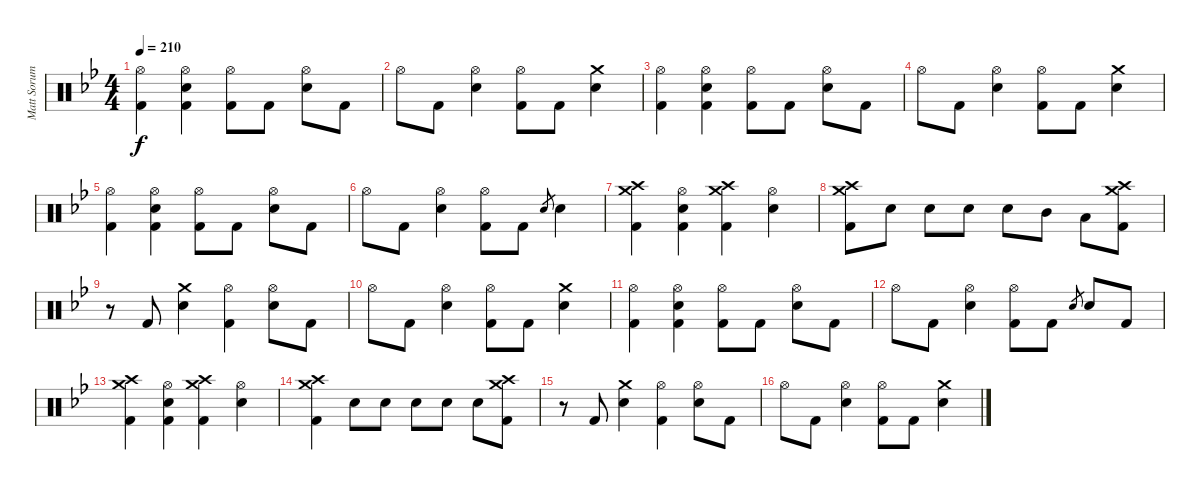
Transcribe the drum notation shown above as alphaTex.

\track ("Matt Sorum - Drums" "Matt Sorum") {instrument percussion}
\staff {score}
\articulation defaults
\ts (4 4)
\tempo 210
\clef neutral
\ks bb
("Hi-Hat (open)" "Kick (hit) 2").4{dy f} ("Hi-Hat (open)" "Snare (hit) 2" "Kick (hit) 2").4 ("Hi-Hat (open)" "Kick (hit) 2").8 "Kick (hit) 2".8 ("Hi-Hat (open)" "Snare (hit) 2").8 "Kick (hit) 2".8 |
"Hi-Hat (open)".8 "Kick (hit) 2".8 ("Hi-Hat (open)" "Snare (hit) 2").4 ("Hi-Hat (open)" "Kick (hit) 2").8 "Kick (hit) 2".8 ("Crash medium (hit)" "Snare (hit) 2").4 |
("Hi-Hat (open)" "Kick (hit) 2").4 ("Hi-Hat (open)" "Snare (hit) 2" "Kick (hit) 2").4 ("Hi-Hat (open)" "Kick (hit) 2").8 "Kick (hit) 2".8 ("Hi-Hat (open)" "Snare (hit) 2").8 "Kick (hit) 2".8 |
"Hi-Hat (open)".8 "Kick (hit) 2".8 ("Hi-Hat (open)" "Snare (hit) 2").4 ("Hi-Hat (open)" "Kick (hit) 2").8 "Kick (hit) 2".8 ("Crash medium (hit)" "Snare (hit) 2").4 |
("Hi-Hat (open)" "Kick (hit) 2").4 ("Hi-Hat (open)" "Snare (hit) 2" "Kick (hit) 2").4 ("Hi-Hat (open)" "Kick (hit) 2").8 "Kick (hit) 2".8 ("Hi-Hat (open)" "Snare (hit) 2").8 "Kick (hit) 2".8 |
"Hi-Hat (open)".8 "Kick (hit) 2".8 ("Hi-Hat (open)" "Snare (hit) 2").4 ("Hi-Hat (open)" "Kick (hit) 2").8 "Kick (hit) 2".8 "Snare (hit) 2".8{gr} "Snare (hit) 2".4 |
("Crash medium (hit)" "Crash high (hit)" "Kick (hit) 2").4 ("Hi-Hat (open)" "Snare (hit) 2" "Kick (hit) 2").4 ("Crash medium (hit)" "Crash high (hit)" "Kick (hit) 2").4 ("Hi-Hat (open)" "Snare (hit) 2").4 |
("Crash medium (hit)" "Crash high (hit)" "Kick (hit) 2").8 "Snare (hit) 2".8 "Snare (hit) 2".8 "Snare (hit) 2".8 "Snare (hit) 2".8 "Mid Tom (hit)".8 "Low Tom (hit)".8 ("Crash high (hit)" "Crash medium (hit)" "Kick (hit) 2").8 |
r.8 "Kick (hit) 2".8 ("Crash medium (hit)" "Snare (hit) 2").4 ("Hi-Hat (open)" "Kick (hit) 2").4 ("Hi-Hat (open)" "Snare (hit) 2").8 "Kick (hit) 2".8 |
"Hi-Hat (open)".8 "Kick (hit) 2".8 ("Hi-Hat (open)" "Snare (hit) 2").4 ("Hi-Hat (open)" "Kick (hit) 2").8 "Kick (hit) 2".8 ("Crash medium (hit)" "Snare (hit) 2").4 |
("Hi-Hat (open)" "Kick (hit) 2").4 ("Hi-Hat (open)" "Snare (hit) 2" "Kick (hit) 2").4 ("Hi-Hat (open)" "Kick (hit) 2").8 "Kick (hit) 2".8 ("Hi-Hat (open)" "Snare (hit) 2").8 "Kick (hit) 2".8 |
"Hi-Hat (open)".8 "Kick (hit) 2".8 ("Hi-Hat (open)" "Snare (hit) 2").4 ("Hi-Hat (open)" "Kick (hit) 2").8 "Kick (hit) 2".8 "Snare (hit) 2".8{gr} "Snare (hit) 2".8 "Kick (hit) 2".8 |
("Crash medium (hit)" "Crash high (hit)" "Kick (hit) 2").4 ("Hi-Hat (open)" "Snare (hit) 2" "Kick (hit) 2").4 ("Crash medium (hit)" "Crash high (hit)" "Kick (hit) 2").4 ("Hi-Hat (open)" "Snare (hit) 2").4 |
("Crash medium (hit)" "Crash high (hit)" "Kick (hit) 2").4 "Snare (hit) 2".8 "Snare (hit) 2".8 "Snare (hit) 2".8 "Snare (hit) 2".8 "Snare (hit) 2".8 ("Crash high (hit)" "Crash medium (hit)" "Kick (hit) 2").8 |
r.8 "Kick (hit) 2".8 ("Crash medium (hit)" "Snare (hit) 2").4 ("Hi-Hat (open)" "Kick (hit) 2").4 ("Hi-Hat (open)" "Snare (hit) 2").8 "Kick (hit) 2".8 |
"Hi-Hat (open)".8 "Kick (hit) 2".8 ("Hi-Hat (open)" "Snare (hit) 2").4 ("Hi-Hat (open)" "Kick (hit) 2").8 "Kick (hit) 2".8 ("Crash medium (hit)" "Snare (hit) 2").4
